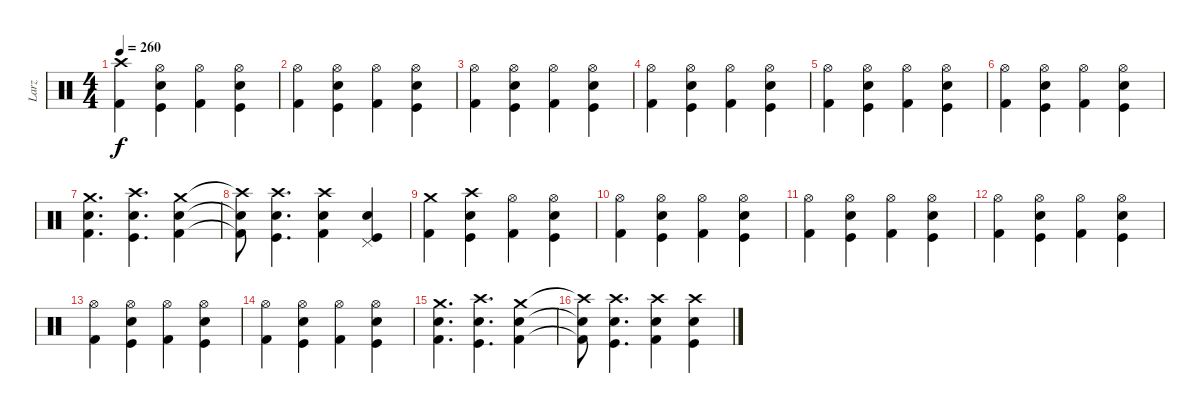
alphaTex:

\track ("Larz" "Larz") {instrument percussion}
\staff {score}
\articulation defaults
\ts (4 4)
\tempo 260
\clef neutral
\ks c
("Crash high (hit)" "Kick (hit) 2").4{dy f} ("Hi-Hat (open)" "Kick (hit)" "Electric Snare (hit)").4 ("Hi-Hat (open)" "Kick (hit) 2").4 ("Hi-Hat (open)" "Kick (hit)" "Electric Snare (hit)").4 |
("Hi-Hat (open)" "Kick (hit) 2").4 ("Hi-Hat (open)" "Kick (hit)" "Electric Snare (hit)").4 ("Hi-Hat (open)" "Kick (hit) 2").4 ("Hi-Hat (open)" "Kick (hit)" "Electric Snare (hit)").4 |
("Hi-Hat (open)" "Kick (hit) 2").4 ("Hi-Hat (open)" "Kick (hit)" "Electric Snare (hit)").4 ("Hi-Hat (open)" "Kick (hit) 2").4 ("Hi-Hat (open)" "Kick (hit)" "Electric Snare (hit)").4 |
("Hi-Hat (open)" "Kick (hit) 2").4 ("Hi-Hat (open)" "Kick (hit)" "Electric Snare (hit)").4 ("Hi-Hat (open)" "Kick (hit) 2").4 ("Hi-Hat (open)" "Kick (hit)" "Electric Snare (hit)").4 |
("Hi-Hat (open)" "Kick (hit) 2").4 ("Hi-Hat (open)" "Kick (hit)" "Electric Snare (hit)").4 ("Hi-Hat (open)" "Kick (hit) 2").4 ("Hi-Hat (open)" "Kick (hit)" "Electric Snare (hit)").4 |
("Hi-Hat (open)" "Kick (hit) 2").4 ("Hi-Hat (open)" "Kick (hit)" "Electric Snare (hit)").4 ("Hi-Hat (open)" "Kick (hit) 2").4 ("Hi-Hat (open)" "Kick (hit)" "Electric Snare (hit)").4 |
("Crash medium (hit)" "Kick (hit) 2" "Electric Snare (hit)").4{d} ("Crash high (hit)" "Kick (hit)" "Electric Snare (hit)").4{d} ("Crash medium (hit)" "Kick (hit) 2" "Electric Snare (hit)").4 |
("Crash high (hit)"{t} "Kick (hit) 2"{t} "Electric Snare (hit)"{t}).8 ("Crash high (hit)" "Kick (hit)" "Electric Snare (hit)").4{d} ("Crash high (hit)" "Kick (hit) 2" "Electric Snare (hit)").4 ("Pedal Hi-Hat (hit)" "Kick (hit)" "Electric Snare (hit)").4 |
("Crash medium (hit)" "Kick (hit) 2").4 ("Crash high (hit)" "Kick (hit)" "Electric Snare (hit)").4 ("Hi-Hat (open)" "Kick (hit) 2").4 ("Hi-Hat (open)" "Kick (hit)" "Electric Snare (hit)").4 |
("Hi-Hat (open)" "Kick (hit) 2").4 ("Hi-Hat (open)" "Kick (hit)" "Electric Snare (hit)").4 ("Hi-Hat (open)" "Kick (hit) 2").4 ("Hi-Hat (open)" "Kick (hit)" "Electric Snare (hit)").4 |
("Hi-Hat (open)" "Kick (hit) 2").4 ("Hi-Hat (open)" "Kick (hit)" "Electric Snare (hit)").4 ("Hi-Hat (open)" "Kick (hit) 2").4 ("Hi-Hat (open)" "Kick (hit)" "Electric Snare (hit)").4 |
("Hi-Hat (open)" "Kick (hit) 2").4 ("Hi-Hat (open)" "Kick (hit)" "Electric Snare (hit)").4 ("Hi-Hat (open)" "Kick (hit) 2").4 ("Hi-Hat (open)" "Kick (hit)" "Electric Snare (hit)").4 |
("Hi-Hat (open)" "Kick (hit) 2").4 ("Hi-Hat (open)" "Kick (hit)" "Electric Snare (hit)").4 ("Hi-Hat (open)" "Kick (hit) 2").4 ("Hi-Hat (open)" "Kick (hit)" "Electric Snare (hit)").4 |
("Hi-Hat (open)" "Kick (hit) 2").4 ("Hi-Hat (open)" "Kick (hit)" "Electric Snare (hit)").4 ("Hi-Hat (open)" "Kick (hit) 2").4 ("Hi-Hat (open)" "Kick (hit)" "Electric Snare (hit)").4 |
("Crash medium (hit)" "Kick (hit) 2" "Electric Snare (hit)").4{d} ("Crash high (hit)" "Kick (hit)" "Electric Snare (hit)").4{d} ("Crash medium (hit)" "Kick (hit) 2" "Electric Snare (hit)").4 |
("Crash high (hit)"{t} "Kick (hit) 2"{t} "Electric Snare (hit)"{t}).8 ("Crash high (hit)" "Kick (hit)" "Electric Snare (hit)").4{d} ("Crash high (hit)" "Kick (hit) 2" "Electric Snare (hit)").4 ("Crash high (hit)" "Kick (hit)" "Electric Snare (hit)").4
